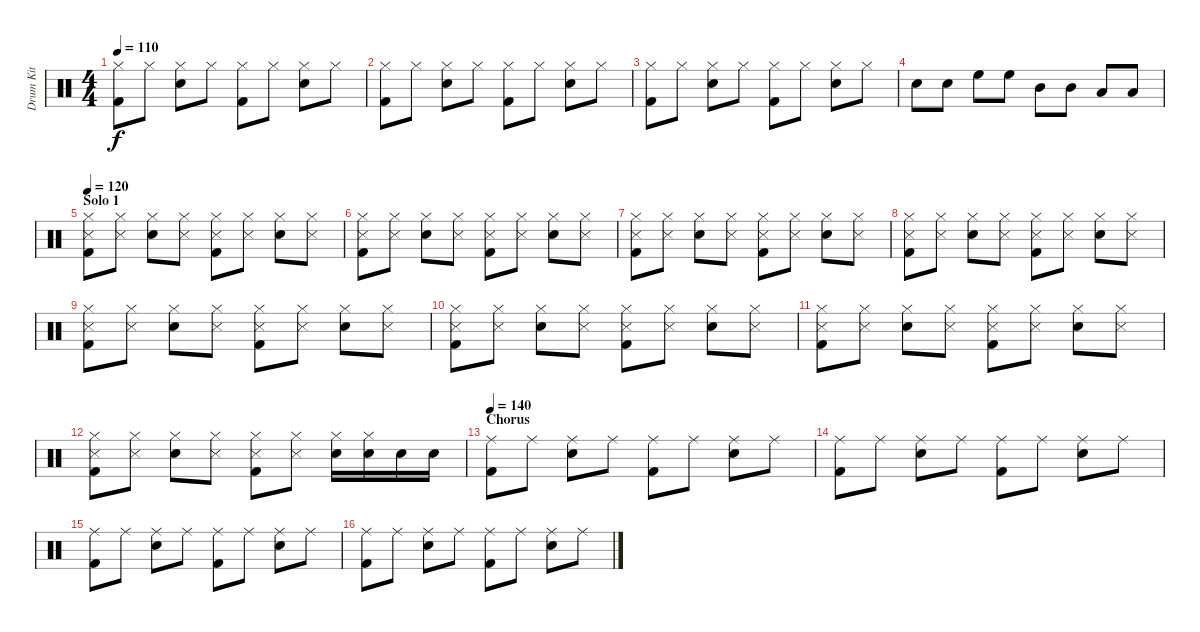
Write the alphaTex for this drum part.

\track ("Drum Kit" "Drum Kit") {instrument percussion}
\staff {score}
\articulation defaults
\ts (4 4)
\tempo 110
\clef neutral
\ks c
("Hi-Hat (closed)" "Kick (hit) 2").8{dy f} "Hi-Hat (closed)".8 ("Hi-Hat (closed)" "Snare (hit) 2").8 "Hi-Hat (closed)".8 ("Hi-Hat (closed)" "Kick (hit) 2").8 "Hi-Hat (closed)".8 ("Hi-Hat (closed)" "Snare (hit) 2").8 "Hi-Hat (closed)".8 |
("Hi-Hat (closed)" "Kick (hit) 2").8 "Hi-Hat (closed)".8 ("Hi-Hat (closed)" "Snare (hit) 2").8 "Hi-Hat (closed)".8 ("Hi-Hat (closed)" "Kick (hit) 2").8 "Hi-Hat (closed)".8 ("Hi-Hat (closed)" "Snare (hit) 2").8 "Hi-Hat (closed)".8 |
("Hi-Hat (closed)" "Kick (hit) 2").8 "Hi-Hat (closed)".8 ("Hi-Hat (closed)" "Snare (hit) 2").8 "Hi-Hat (closed)".8 ("Hi-Hat (closed)" "Kick (hit) 2").8 "Hi-Hat (closed)".8 ("Hi-Hat (closed)" "Snare (hit) 2").8 "Hi-Hat (closed)".8 |
"Snare (hit) 2".8 "Snare (hit) 2".8 "High Floor Tom (hit)".8 "High Floor Tom (hit)".8 "Mid Tom (hit)".8 "Mid Tom (hit)".8 "Low Tom (hit)".8 "Low Tom (hit)".8 |
\section ("" "Solo 1")
\tempo 120
("Hi-Hat (closed)" "Snare (side stick) 3" "Kick (hit) 2").8{volume 10} ("Hi-Hat (closed)" "Snare (side stick) 3").8 ("Hi-Hat (closed)" "Snare (hit) 2").8 ("Hi-Hat (closed)" "Snare (side stick) 3").8 ("Hi-Hat (closed)" "Snare (side stick) 3" "Kick (hit) 2").8 ("Hi-Hat (closed)" "Snare (side stick) 3").8 ("Hi-Hat (closed)" "Snare (hit) 2").8 ("Hi-Hat (closed)" "Snare (side stick) 3").8 |
("Hi-Hat (closed)" "Snare (side stick) 3" "Kick (hit) 2").8{volume 10} ("Hi-Hat (closed)" "Snare (side stick) 3").8 ("Hi-Hat (closed)" "Snare (hit) 2").8 ("Hi-Hat (closed)" "Snare (side stick) 3").8 ("Hi-Hat (closed)" "Snare (side stick) 3" "Kick (hit) 2").8 ("Hi-Hat (closed)" "Snare (side stick) 3").8 ("Hi-Hat (closed)" "Snare (hit) 2").8 ("Hi-Hat (closed)" "Snare (side stick) 3").8 |
("Hi-Hat (closed)" "Snare (side stick) 3" "Kick (hit) 2").8{volume 10} ("Hi-Hat (closed)" "Snare (side stick) 3").8 ("Hi-Hat (closed)" "Snare (hit) 2").8 ("Hi-Hat (closed)" "Snare (side stick) 3").8 ("Hi-Hat (closed)" "Snare (side stick) 3" "Kick (hit) 2").8 ("Hi-Hat (closed)" "Snare (side stick) 3").8 ("Hi-Hat (closed)" "Snare (hit) 2").8 ("Hi-Hat (closed)" "Snare (side stick) 3").8 |
("Hi-Hat (closed)" "Snare (side stick) 3" "Kick (hit) 2").8{volume 10} ("Hi-Hat (closed)" "Snare (side stick) 3").8 ("Hi-Hat (closed)" "Snare (hit) 2").8 ("Hi-Hat (closed)" "Snare (side stick) 3").8 ("Hi-Hat (closed)" "Snare (side stick) 3" "Kick (hit) 2").8 ("Hi-Hat (closed)" "Snare (side stick) 3").8 ("Hi-Hat (closed)" "Snare (hit) 2").8 ("Hi-Hat (closed)" "Snare (side stick) 3").8 |
("Hi-Hat (closed)" "Snare (side stick) 3" "Kick (hit) 2").8{volume 10} ("Hi-Hat (closed)" "Snare (side stick) 3").8 ("Hi-Hat (closed)" "Snare (hit) 2").8 ("Hi-Hat (closed)" "Snare (side stick) 3").8 ("Hi-Hat (closed)" "Snare (side stick) 3" "Kick (hit) 2").8 ("Hi-Hat (closed)" "Snare (side stick) 3").8 ("Hi-Hat (closed)" "Snare (hit) 2").8 ("Hi-Hat (closed)" "Snare (side stick) 3").8 |
("Hi-Hat (closed)" "Snare (side stick) 3" "Kick (hit) 2").8{volume 10} ("Hi-Hat (closed)" "Snare (side stick) 3").8 ("Hi-Hat (closed)" "Snare (hit) 2").8 ("Hi-Hat (closed)" "Snare (side stick) 3").8 ("Hi-Hat (closed)" "Snare (side stick) 3" "Kick (hit) 2").8 ("Hi-Hat (closed)" "Snare (side stick) 3").8 ("Hi-Hat (closed)" "Snare (hit) 2").8 ("Hi-Hat (closed)" "Snare (side stick) 3").8 |
("Hi-Hat (closed)" "Snare (side stick) 3" "Kick (hit) 2").8{volume 10} ("Hi-Hat (closed)" "Snare (side stick) 3").8 ("Hi-Hat (closed)" "Snare (hit) 2").8 ("Hi-Hat (closed)" "Snare (side stick) 3").8 ("Hi-Hat (closed)" "Snare (side stick) 3" "Kick (hit) 2").8 ("Hi-Hat (closed)" "Snare (side stick) 3").8 ("Hi-Hat (closed)" "Snare (hit) 2").8 ("Hi-Hat (closed)" "Snare (side stick) 3").8 |
("Hi-Hat (closed)" "Snare (side stick) 3" "Kick (hit) 2").8{volume 10} ("Hi-Hat (closed)" "Snare (side stick) 3").8 ("Hi-Hat (closed)" "Snare (hit) 2").8 ("Hi-Hat (closed)" "Snare (side stick) 3").8 ("Hi-Hat (closed)" "Snare (side stick) 3" "Kick (hit) 2").8 ("Hi-Hat (closed)" "Snare (side stick) 3").8 ("Hi-Hat (closed)" "Snare (hit) 2").16 ("Hi-Hat (closed)" "Snare (hit) 2").16 "Snare (hit) 2".16 "Snare (hit) 2".16 |
\section ("" "Chorus")
\tempo 140
("Ride (middle)" "Kick (hit) 2").8 "Ride (middle)".8 ("Ride (middle)" "Snare (hit) 2").8 "Ride (middle)".8 ("Ride (middle)" "Kick (hit) 2").8 "Ride (middle)".8 ("Ride (middle)" "Snare (hit) 2").8 "Ride (middle)".8 |
("Ride (middle)" "Kick (hit) 2").8 "Ride (middle)".8 ("Ride (middle)" "Snare (hit) 2").8 "Ride (middle)".8 ("Ride (middle)" "Kick (hit) 2").8 "Ride (middle)".8 ("Ride (middle)" "Snare (hit) 2").8 "Ride (middle)".8 |
("Ride (middle)" "Kick (hit) 2").8 "Ride (middle)".8 ("Ride (middle)" "Snare (hit) 2").8 "Ride (middle)".8 ("Ride (middle)" "Kick (hit) 2").8 "Ride (middle)".8 ("Ride (middle)" "Snare (hit) 2").8 "Ride (middle)".8 |
("Ride (middle)" "Kick (hit) 2").8 "Ride (middle)".8 ("Ride (middle)" "Snare (hit) 2").8 "Ride (middle)".8 ("Ride (middle)" "Kick (hit) 2").8 "Ride (middle)".8 ("Ride (middle)" "Snare (hit) 2").8 "Ride (middle)".8
